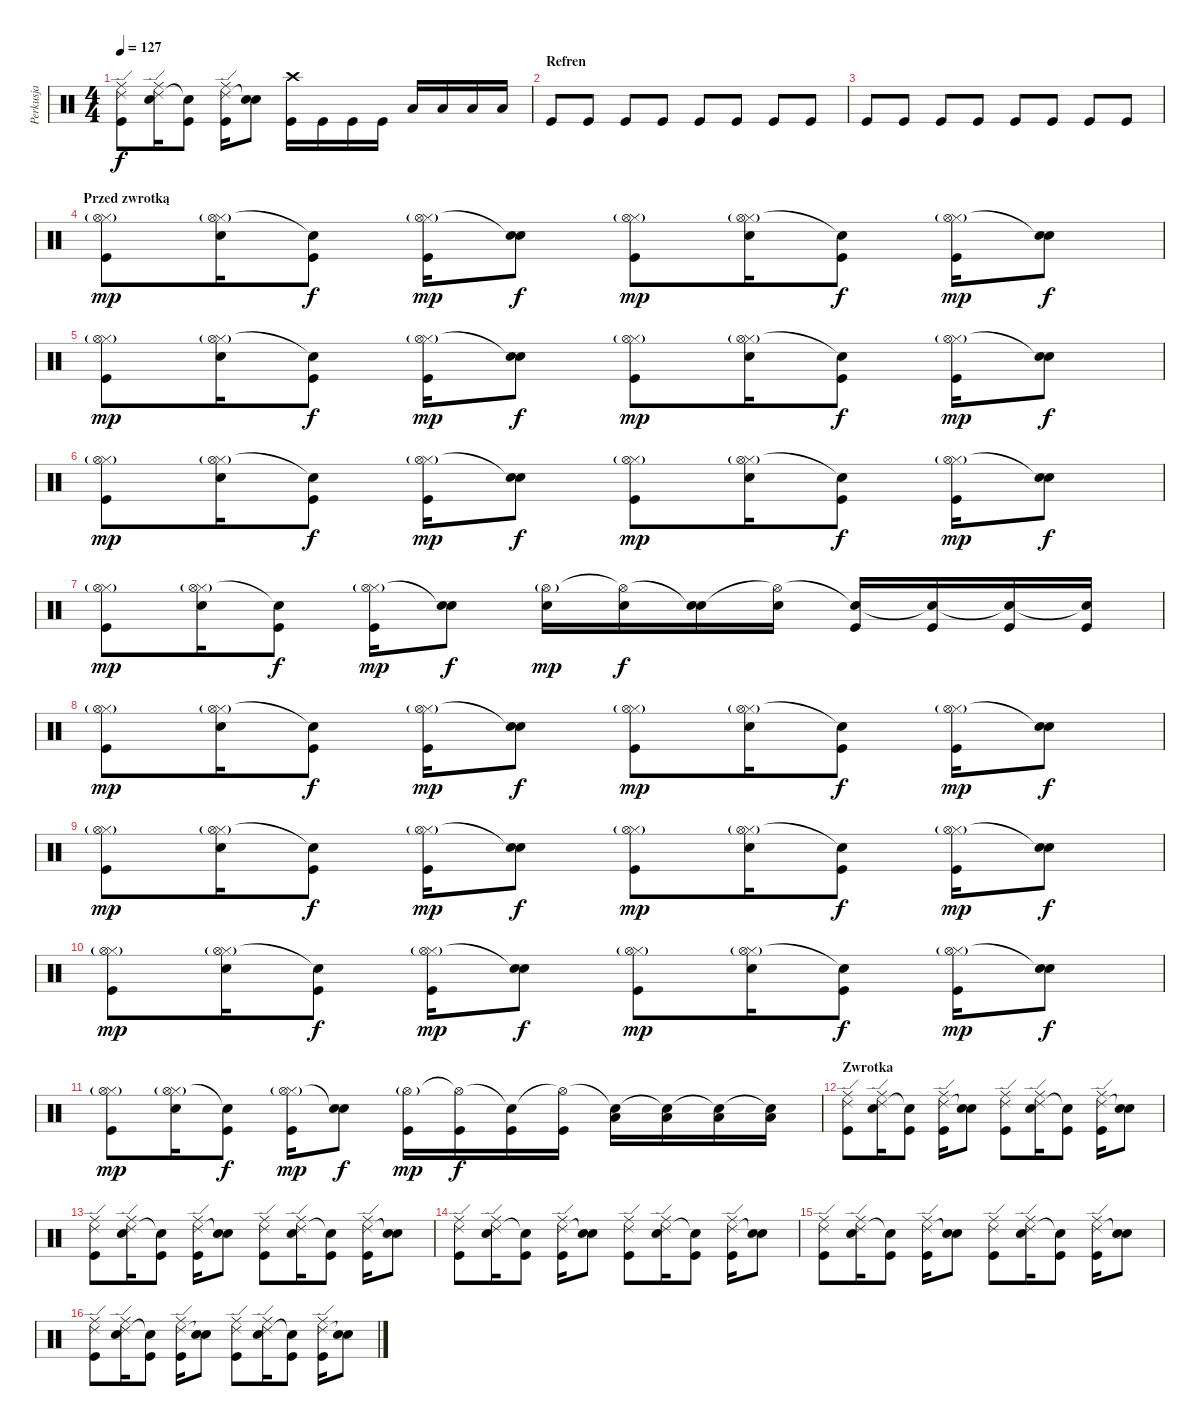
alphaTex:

\track ("Perkusja" "Perkusja") {instrument percussion}
\staff {score}
\articulation defaults
\ts (4 4)
\tempo 127
\clef neutral
\ks c
("Kick (hit)" "Ride (edge) 2" "Ride (middle)").8{dy f} ("Snare (hit) 2" "Ride (edge) 2" "Ride (middle)").16 ("Kick (hit)" "Snare (hit)"{t}).8 ("Kick (hit)" "Ride (edge) 2" "Ride (middle)").16 ("Snare (hit) 2" "Snare (hit)"{t}).8 ("Kick (hit)" "Crash high (hit)").16 "Kick (hit)".16 "Kick (hit)".16 "Kick (hit)".16 "Low Tom (hit)".16 "Low Tom (hit)".16 "Low Tom (hit)".16 "Low Tom (hit)".16 |
\section ("" "Refren")
"Kick (hit)".8 "Kick (hit)".8 "Kick (hit)".8 "Kick (hit)".8 "Kick (hit)".8 "Kick (hit)".8 "Kick (hit)".8 "Kick (hit)".8 |
"Kick (hit)".8 "Kick (hit)".8 "Kick (hit)".8 "Kick (hit)".8 "Kick (hit)".8 "Kick (hit)".8 "Kick (hit)".8 "Kick (hit)".8 |
\section ("" "Przed zwrotką")
("Kick (hit)" "Hi-Hat (closed)" "Hi-Hat (open)"{g}).8{dy mp} ("Snare (hit) 2" "Hi-Hat (closed)" "Hi-Hat (open)"{g}).16 ("Kick (hit)" "Snare (hit)"{t}).8{dy f} ("Kick (hit)" "Hi-Hat (closed)" "Hi-Hat (open)"{g}).16{dy mp} ("Snare (hit) 2" "Snare (hit)"{t}).8{dy f} ("Kick (hit)" "Hi-Hat (closed)" "Hi-Hat (open)"{g}).8{dy mp} ("Snare (hit) 2" "Hi-Hat (closed)" "Hi-Hat (open)"{g}).16 ("Kick (hit)" "Snare (hit)"{t}).8{dy f} ("Kick (hit)" "Hi-Hat (closed)" "Hi-Hat (open)"{g}).16{dy mp} ("Snare (hit) 2" "Snare (hit)"{t}).8{dy f} |
("Kick (hit)" "Hi-Hat (closed)" "Hi-Hat (open)"{g}).8{dy mp} ("Snare (hit) 2" "Hi-Hat (closed)" "Hi-Hat (open)"{g}).16 ("Kick (hit)" "Snare (hit)"{t}).8{dy f} ("Kick (hit)" "Hi-Hat (closed)" "Hi-Hat (open)"{g}).16{dy mp} ("Snare (hit) 2" "Snare (hit)"{t}).8{dy f} ("Kick (hit)" "Hi-Hat (closed)" "Hi-Hat (open)"{g}).8{dy mp} ("Snare (hit) 2" "Hi-Hat (closed)" "Hi-Hat (open)"{g}).16 ("Kick (hit)" "Snare (hit)"{t}).8{dy f} ("Kick (hit)" "Hi-Hat (closed)" "Hi-Hat (open)"{g}).16{dy mp} ("Snare (hit) 2" "Snare (hit)"{t}).8{dy f} |
("Kick (hit)" "Hi-Hat (closed)" "Hi-Hat (open)"{g}).8{dy mp} ("Snare (hit) 2" "Hi-Hat (closed)" "Hi-Hat (open)"{g}).16 ("Kick (hit)" "Snare (hit)"{t}).8{dy f} ("Kick (hit)" "Hi-Hat (closed)" "Hi-Hat (open)"{g}).16{dy mp} ("Snare (hit) 2" "Snare (hit)"{t}).8{dy f} ("Kick (hit)" "Hi-Hat (closed)" "Hi-Hat (open)"{g}).8{dy mp} ("Snare (hit) 2" "Hi-Hat (closed)" "Hi-Hat (open)"{g}).16 ("Kick (hit)" "Snare (hit)"{t}).8{dy f} ("Kick (hit)" "Hi-Hat (closed)" "Hi-Hat (open)"{g}).16{dy mp} ("Snare (hit) 2" "Snare (hit)"{t}).8{dy f} |
("Kick (hit)" "Hi-Hat (closed)" "Hi-Hat (open)"{g}).8{dy mp} ("Snare (hit) 2" "Hi-Hat (closed)" "Hi-Hat (open)"{g}).16 ("Kick (hit)" "Snare (hit)"{t}).8{dy f} ("Kick (hit)" "Hi-Hat (closed)" "Hi-Hat (open)"{g}).16{dy mp} ("Snare (hit) 2" "Snare (hit)"{t}).8{dy f} ("Snare (hit) 2" "Hi-Hat (open)"{g}).16{dy mp} ("Snare (hit) 2" "Hi-Hat (open)"{t}).16{dy f} ("Snare (hit) 2" "Snare (hit)"{t}).16 ("Snare (hit) 2" "Hi-Hat (open)"{t}).16 ("Kick (hit)" "Snare (hit)"{t}).16 ("Kick (hit)" "Snare (hit)"{t}).16 ("Kick (hit)" "Snare (hit)"{t}).16 ("Kick (hit)" "Snare (hit)"{t}).16 |
("Kick (hit)" "Hi-Hat (closed)" "Hi-Hat (open)"{g}).8{dy mp} ("Snare (hit) 2" "Hi-Hat (closed)" "Hi-Hat (open)"{g}).16 ("Kick (hit)" "Snare (hit)"{t}).8{dy f} ("Kick (hit)" "Hi-Hat (closed)" "Hi-Hat (open)"{g}).16{dy mp} ("Snare (hit) 2" "Snare (hit)"{t}).8{dy f} ("Kick (hit)" "Hi-Hat (closed)" "Hi-Hat (open)"{g}).8{dy mp} ("Snare (hit) 2" "Hi-Hat (closed)" "Hi-Hat (open)"{g}).16 ("Kick (hit)" "Snare (hit)"{t}).8{dy f} ("Kick (hit)" "Hi-Hat (closed)" "Hi-Hat (open)"{g}).16{dy mp} ("Snare (hit) 2" "Snare (hit)"{t}).8{dy f} |
("Kick (hit)" "Hi-Hat (closed)" "Hi-Hat (open)"{g}).8{dy mp} ("Snare (hit) 2" "Hi-Hat (closed)" "Hi-Hat (open)"{g}).16 ("Kick (hit)" "Snare (hit)"{t}).8{dy f} ("Kick (hit)" "Hi-Hat (closed)" "Hi-Hat (open)"{g}).16{dy mp} ("Snare (hit) 2" "Snare (hit)"{t}).8{dy f} ("Kick (hit)" "Hi-Hat (closed)" "Hi-Hat (open)"{g}).8{dy mp} ("Snare (hit) 2" "Hi-Hat (closed)" "Hi-Hat (open)"{g}).16 ("Kick (hit)" "Snare (hit)"{t}).8{dy f} ("Kick (hit)" "Hi-Hat (closed)" "Hi-Hat (open)"{g}).16{dy mp} ("Snare (hit) 2" "Snare (hit)"{t}).8{dy f} |
("Kick (hit)" "Hi-Hat (closed)" "Hi-Hat (open)"{g}).8{dy mp} ("Snare (hit) 2" "Hi-Hat (closed)" "Hi-Hat (open)"{g}).16 ("Kick (hit)" "Snare (hit)"{t}).8{dy f} ("Kick (hit)" "Hi-Hat (closed)" "Hi-Hat (open)"{g}).16{dy mp} ("Snare (hit) 2" "Snare (hit)"{t}).8{dy f} ("Kick (hit)" "Hi-Hat (closed)" "Hi-Hat (open)"{g}).8{dy mp} ("Snare (hit) 2" "Hi-Hat (closed)" "Hi-Hat (open)"{g}).16 ("Kick (hit)" "Snare (hit)"{t}).8{dy f} ("Kick (hit)" "Hi-Hat (closed)" "Hi-Hat (open)"{g}).16{dy mp} ("Snare (hit) 2" "Snare (hit)"{t}).8{dy f} |
("Kick (hit)" "Hi-Hat (closed)" "Hi-Hat (open)"{g}).8{dy mp} ("Snare (hit) 2" "Hi-Hat (closed)" "Hi-Hat (open)"{g}).16 ("Kick (hit)" "Snare (hit)"{t}).8{dy f} ("Kick (hit)" "Hi-Hat (closed)" "Hi-Hat (open)"{g}).16{dy mp} ("Snare (hit) 2" "Snare (hit)"{t}).8{dy f} ("Kick (hit)" "Hi-Hat (open)"{g}).16{dy mp} ("Kick (hit)" "Hi-Hat (open)"{t}).16{dy f} ("Kick (hit)" "Snare (hit)"{t}).16 ("Kick (hit)" "Hi-Hat (open)"{t}).16 ("Low Tom (hit)" "Snare (hit)"{t}).16 ("Low Tom (hit)" "Snare (hit)"{t}).16 ("Low Tom (hit)" "Snare (hit)"{t}).16 ("Low Tom (hit)" "Snare (hit)"{t}).16 |
\section ("" "Zwrotka")
("Kick (hit)" "Ride (edge) 2" "Ride (middle)").8 ("Snare (hit) 2" "Ride (edge) 2" "Ride (middle)").16 ("Kick (hit)" "Snare (hit)"{t}).8 ("Kick (hit)" "Ride (edge) 2" "Ride (middle)").16 ("Snare (hit) 2" "Snare (hit)"{t}).8 ("Kick (hit)" "Ride (edge) 2" "Ride (middle)").8 ("Snare (hit) 2" "Ride (edge) 2" "Ride (middle)").16 ("Kick (hit)" "Snare (hit)"{t}).8 ("Kick (hit)" "Ride (edge) 2" "Ride (middle)").16 ("Snare (hit) 2" "Snare (hit)"{t}).8 |
("Kick (hit)" "Ride (edge) 2" "Ride (middle)").8 ("Snare (hit) 2" "Ride (edge) 2" "Ride (middle)").16 ("Kick (hit)" "Snare (hit)"{t}).8 ("Kick (hit)" "Ride (edge) 2" "Ride (middle)").16 ("Snare (hit) 2" "Snare (hit)"{t}).8 ("Kick (hit)" "Ride (edge) 2" "Ride (middle)").8 ("Snare (hit) 2" "Ride (edge) 2" "Ride (middle)").16 ("Kick (hit)" "Snare (hit)"{t}).8 ("Kick (hit)" "Ride (edge) 2" "Ride (middle)").16 ("Snare (hit) 2" "Snare (hit)"{t}).8 |
("Kick (hit)" "Ride (edge) 2" "Ride (middle)").8 ("Snare (hit) 2" "Ride (edge) 2" "Ride (middle)").16 ("Kick (hit)" "Snare (hit)"{t}).8 ("Kick (hit)" "Ride (edge) 2" "Ride (middle)").16 ("Snare (hit) 2" "Snare (hit)"{t}).8 ("Kick (hit)" "Ride (edge) 2" "Ride (middle)").8 ("Snare (hit) 2" "Ride (edge) 2" "Ride (middle)").16 ("Kick (hit)" "Snare (hit)"{t}).8 ("Kick (hit)" "Ride (edge) 2" "Ride (middle)").16 ("Snare (hit) 2" "Snare (hit)"{t}).8 |
("Kick (hit)" "Ride (edge) 2" "Ride (middle)").8 ("Snare (hit) 2" "Ride (edge) 2" "Ride (middle)").16 ("Kick (hit)" "Snare (hit)"{t}).8 ("Kick (hit)" "Ride (edge) 2" "Ride (middle)").16 ("Snare (hit) 2" "Snare (hit)"{t}).8 ("Kick (hit)" "Ride (edge) 2" "Ride (middle)").8 ("Snare (hit) 2" "Ride (edge) 2" "Ride (middle)").16 ("Kick (hit)" "Snare (hit)"{t}).8 ("Kick (hit)" "Ride (edge) 2" "Ride (middle)").16 ("Snare (hit) 2" "Snare (hit)"{t}).8 |
("Kick (hit)" "Ride (edge) 2" "Ride (middle)").8 ("Snare (hit) 2" "Ride (edge) 2" "Ride (middle)").16 ("Kick (hit)" "Snare (hit)"{t}).8 ("Kick (hit)" "Ride (edge) 2" "Ride (middle)").16 ("Snare (hit) 2" "Snare (hit)"{t}).8 ("Kick (hit)" "Ride (edge) 2" "Ride (middle)").8 ("Snare (hit) 2" "Ride (edge) 2" "Ride (middle)").16 ("Kick (hit)" "Snare (hit)"{t}).8 ("Kick (hit)" "Ride (edge) 2" "Ride (middle)").16 ("Snare (hit) 2" "Snare (hit)"{t}).8
